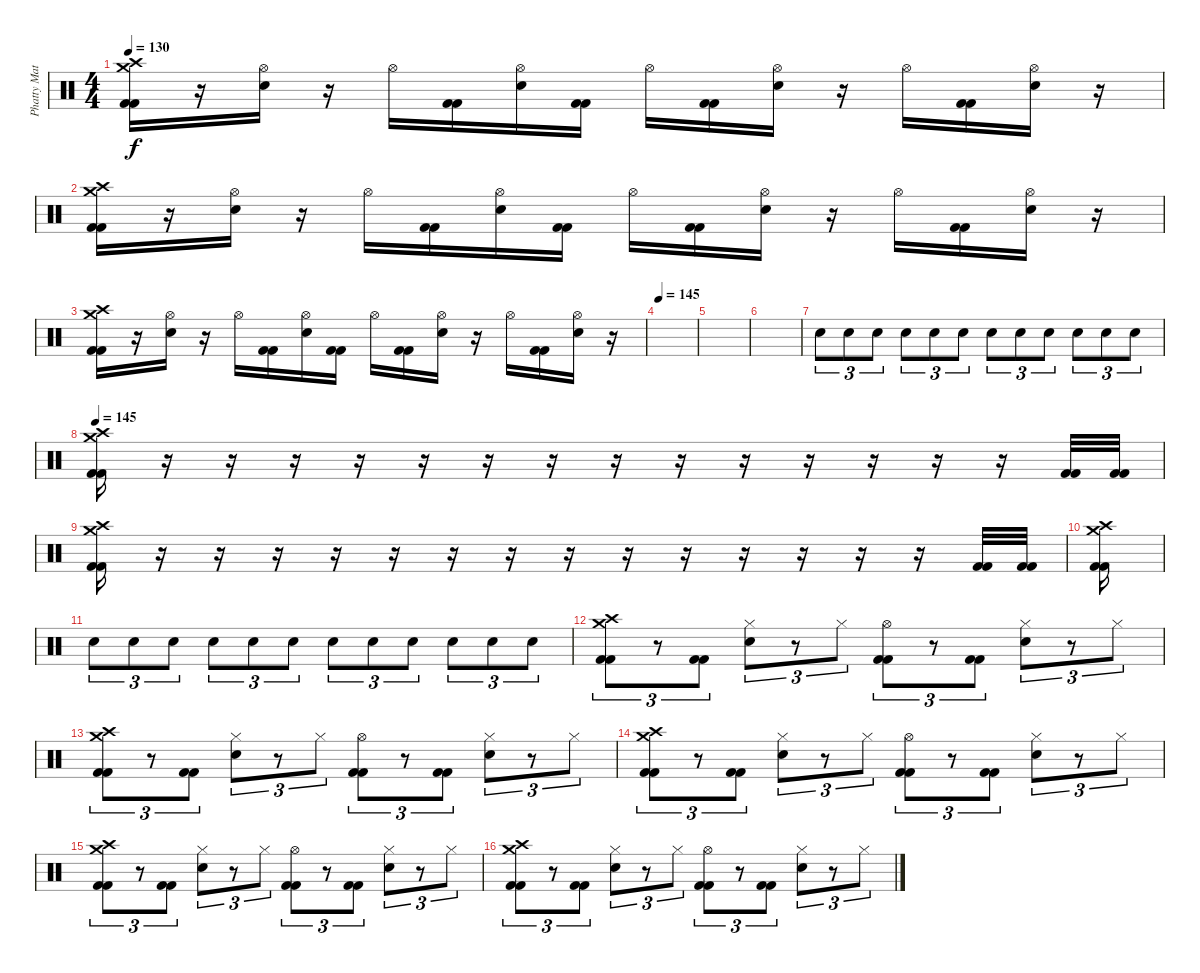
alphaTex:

\track ("Phatty Matty Withrow (Drums)" "Phatty Mat") {instrument percussion}
\staff {score}
\articulation defaults
\ts (4 4)
\tempo 130
\clef neutral
\ks c
("Crash high (hit)" "Crash medium (hit)" "Kick (hit) 2" "Kick (hit) 2").16{dy f} r.16 ("Hi-Hat (open)" "Electric Snare (hit)").16 r.16 "Hi-Hat (open)".16 ("Kick (hit) 2" "Kick (hit) 2").16 ("Hi-Hat (open)" "Electric Snare (hit)").16 ("Kick (hit) 2" "Kick (hit) 2").16 "Hi-Hat (open)".16 ("Kick (hit) 2" "Kick (hit) 2").16 ("Hi-Hat (open)" "Electric Snare (hit)").16 r.16 "Hi-Hat (open)".16 ("Kick (hit) 2" "Kick (hit) 2").16 ("Hi-Hat (open)" "Electric Snare (hit)").16 r.16 |
("Crash high (hit)" "Crash medium (hit)" "Kick (hit) 2" "Kick (hit) 2").16 r.16 ("Hi-Hat (open)" "Electric Snare (hit)").16 r.16 "Hi-Hat (open)".16 ("Kick (hit) 2" "Kick (hit) 2").16 ("Hi-Hat (open)" "Electric Snare (hit)").16 ("Kick (hit) 2" "Kick (hit) 2").16 "Hi-Hat (open)".16 ("Kick (hit) 2" "Kick (hit) 2").16 ("Hi-Hat (open)" "Electric Snare (hit)").16 r.16 "Hi-Hat (open)".16 ("Kick (hit) 2" "Kick (hit) 2").16 ("Hi-Hat (open)" "Electric Snare (hit)").16 r.16 |
("Crash high (hit)" "Crash medium (hit)" "Kick (hit) 2" "Kick (hit) 2").16 r.16 ("Hi-Hat (open)" "Electric Snare (hit)").16 r.16 "Hi-Hat (open)".16 ("Kick (hit) 2" "Kick (hit) 2").16 ("Hi-Hat (open)" "Electric Snare (hit)").16 ("Kick (hit) 2" "Kick (hit) 2").16 "Hi-Hat (open)".16 ("Kick (hit) 2" "Kick (hit) 2").16 ("Hi-Hat (open)" "Electric Snare (hit)").16 r.16 "Hi-Hat (open)".16 ("Kick (hit) 2" "Kick (hit) 2").16 ("Hi-Hat (open)" "Electric Snare (hit)").16 r.16 |
\tempo 145
|
|
|
"Electric Snare (hit)".8{tu (3 2)} "Electric Snare (hit)".8{tu (3 2)} "Electric Snare (hit)".8{tu (3 2)} "Electric Snare (hit)".8{tu (3 2)} "Electric Snare (hit)".8{tu (3 2)} "Electric Snare (hit)".8{tu (3 2)} "Electric Snare (hit)".8{tu (3 2)} "Electric Snare (hit)".8{tu (3 2)} "Electric Snare (hit)".8{tu (3 2)} "Electric Snare (hit)".8{tu (3 2)} "Electric Snare (hit)".8{tu (3 2)} "Electric Snare (hit)".8{tu (3 2)} |
\tempo 145
("Crash high (hit)" "Crash medium (hit)" "Kick (hit) 2" "Kick (hit) 2").16 r.16 r.16 r.16 r.16 r.16 r.16 r.16 r.16 r.16 r.16 r.16 r.16 r.16 r.16 ("Kick (hit) 2" "Kick (hit) 2").32 ("Kick (hit) 2" "Kick (hit) 2").32 |
("Crash high (hit)" "Crash medium (hit)" "Kick (hit) 2" "Kick (hit) 2").16 r.16 r.16 r.16 r.16 r.16 r.16 r.16 r.16 r.16 r.16 r.16 r.16 r.16 r.16 ("Kick (hit) 2" "Kick (hit) 2").32 ("Kick (hit) 2" "Kick (hit) 2").32 |
("Crash high (hit)" "Crash medium (hit)" "Kick (hit) 2" "Kick (hit) 2").16 |
"Electric Snare (hit)".8{tu (3 2)} "Electric Snare (hit)".8{tu (3 2)} "Electric Snare (hit)".8{tu (3 2)} "Electric Snare (hit)".8{tu (3 2)} "Electric Snare (hit)".8{tu (3 2)} "Electric Snare (hit)".8{tu (3 2)} "Electric Snare (hit)".8{tu (3 2)} "Electric Snare (hit)".8{tu (3 2)} "Electric Snare (hit)".8{tu (3 2)} "Electric Snare (hit)".8{tu (3 2)} "Electric Snare (hit)".8{tu (3 2)} "Electric Snare (hit)".8{tu (3 2)} |
("Crash high (hit)" "Crash medium (hit)" "Kick (hit) 2" "Kick (hit) 2").8{tu (3 2)} r.8{tu (3 2)} ("Kick (hit) 2" "Kick (hit) 2").8{tu (3 2)} ("Hi-Hat (closed)" "Electric Snare (hit)").8{tu (3 2)} r.8{tu (3 2)} "Hi-Hat (closed)".8{tu (3 2)} ("Hi-Hat (open)" "Kick (hit) 2" "Kick (hit) 2").8{tu (3 2)} r.8{tu (3 2)} ("Kick (hit) 2" "Kick (hit) 2").8{tu (3 2)} ("Hi-Hat (closed)" "Snare (hit)").8{tu (3 2)} r.8{tu (3 2)} "Hi-Hat (closed)".8{tu (3 2)} |
("Crash high (hit)" "Crash medium (hit)" "Kick (hit) 2" "Kick (hit) 2").8{tu (3 2)} r.8{tu (3 2)} ("Kick (hit) 2" "Kick (hit) 2").8{tu (3 2)} ("Hi-Hat (closed)" "Electric Snare (hit)").8{tu (3 2)} r.8{tu (3 2)} "Hi-Hat (closed)".8{tu (3 2)} ("Hi-Hat (open)" "Kick (hit) 2" "Kick (hit) 2").8{tu (3 2)} r.8{tu (3 2)} ("Kick (hit) 2" "Kick (hit) 2").8{tu (3 2)} ("Hi-Hat (closed)" "Snare (hit)").8{tu (3 2)} r.8{tu (3 2)} "Hi-Hat (closed)".8{tu (3 2)} |
("Crash high (hit)" "Crash medium (hit)" "Kick (hit) 2" "Kick (hit) 2").8{tu (3 2)} r.8{tu (3 2)} ("Kick (hit) 2" "Kick (hit) 2").8{tu (3 2)} ("Hi-Hat (closed)" "Electric Snare (hit)").8{tu (3 2)} r.8{tu (3 2)} "Hi-Hat (closed)".8{tu (3 2)} ("Hi-Hat (open)" "Kick (hit) 2" "Kick (hit) 2").8{tu (3 2)} r.8{tu (3 2)} ("Kick (hit) 2" "Kick (hit) 2").8{tu (3 2)} ("Hi-Hat (closed)" "Snare (hit)").8{tu (3 2)} r.8{tu (3 2)} "Hi-Hat (closed)".8{tu (3 2)} |
("Crash high (hit)" "Crash medium (hit)" "Kick (hit) 2" "Kick (hit) 2").8{tu (3 2)} r.8{tu (3 2)} ("Kick (hit) 2" "Kick (hit) 2").8{tu (3 2)} ("Hi-Hat (closed)" "Electric Snare (hit)").8{tu (3 2)} r.8{tu (3 2)} "Hi-Hat (closed)".8{tu (3 2)} ("Hi-Hat (open)" "Kick (hit) 2" "Kick (hit) 2").8{tu (3 2)} r.8{tu (3 2)} ("Kick (hit) 2" "Kick (hit) 2").8{tu (3 2)} ("Hi-Hat (closed)" "Snare (hit)").8{tu (3 2)} r.8{tu (3 2)} "Hi-Hat (closed)".8{tu (3 2)} |
("Crash high (hit)" "Crash medium (hit)" "Kick (hit) 2" "Kick (hit) 2").8{tu (3 2)} r.8{tu (3 2)} ("Kick (hit) 2" "Kick (hit) 2").8{tu (3 2)} ("Hi-Hat (closed)" "Electric Snare (hit)").8{tu (3 2)} r.8{tu (3 2)} "Hi-Hat (closed)".8{tu (3 2)} ("Hi-Hat (open)" "Kick (hit) 2" "Kick (hit) 2").8{tu (3 2)} r.8{tu (3 2)} ("Kick (hit) 2" "Kick (hit) 2").8{tu (3 2)} ("Hi-Hat (closed)" "Snare (hit)").8{tu (3 2)} r.8{tu (3 2)} "Hi-Hat (closed)".8{tu (3 2)}
